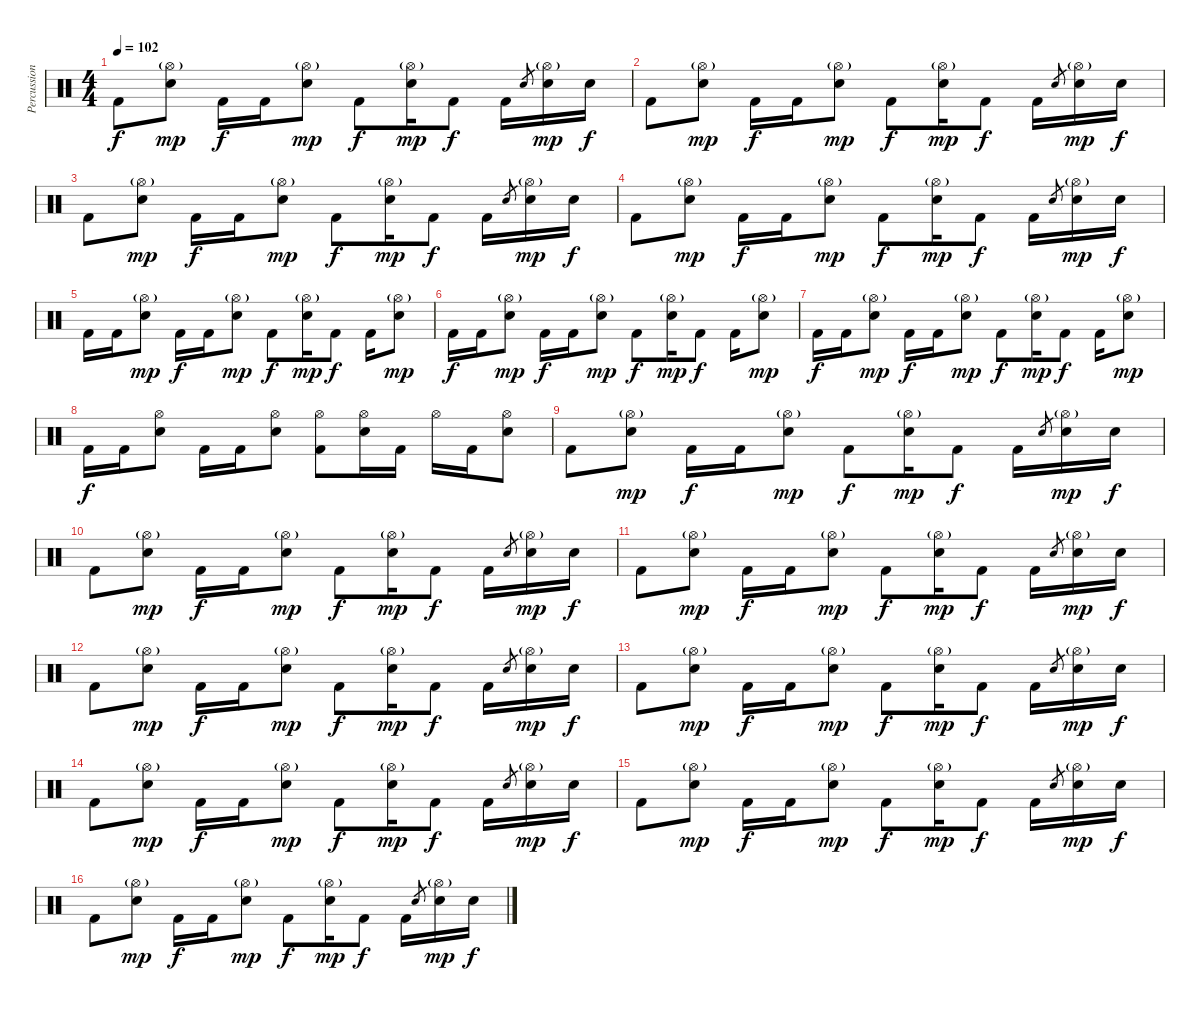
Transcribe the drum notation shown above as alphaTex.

\track ("Percussion" "Percussion") {instrument percussion}
\staff {score}
\articulation defaults
\ts (4 4)
\tempo 102
\clef neutral
\ks c "Kick (hit) 2".8{dy f}
("Hi-Hat (open)"{g} "Snare (hit) 2").8{dy mp} "Kick (hit) 2".16{dy f} "Kick (hit) 2".16 ("Hi-Hat (open)"{g} "Snare (hit) 2").8{dy mp} "Kick (hit) 2".8{dy f} ("Hi-Hat (open)"{g} "Snare (hit) 2").16{dy mp} "Kick (hit) 2".8{dy f} "Kick (hit) 2".16 "Snare (hit) 2".8{gr} ("Hi-Hat (open)"{g} "Snare (hit) 2").16{dy mp} "Snare (hit) 2".16{dy f} |
"Kick (hit) 2".8 ("Hi-Hat (open)"{g} "Snare (hit) 2").8{dy mp} "Kick (hit) 2".16{dy f} "Kick (hit) 2".16 ("Hi-Hat (open)"{g} "Snare (hit) 2").8{dy mp} "Kick (hit) 2".8{dy f} ("Hi-Hat (open)"{g} "Snare (hit) 2").16{dy mp} "Kick (hit) 2".8{dy f} "Kick (hit) 2".16 "Snare (hit) 2".8{gr} ("Hi-Hat (open)"{g} "Snare (hit) 2").16{dy mp} "Snare (hit) 2".16{dy f} |
"Kick (hit) 2".8 ("Hi-Hat (open)"{g} "Snare (hit) 2").8{dy mp} "Kick (hit) 2".16{dy f} "Kick (hit) 2".16 ("Hi-Hat (open)"{g} "Snare (hit) 2").8{dy mp} "Kick (hit) 2".8{dy f} ("Hi-Hat (open)"{g} "Snare (hit) 2").16{dy mp} "Kick (hit) 2".8{dy f} "Kick (hit) 2".16 "Snare (hit) 2".8{gr} ("Hi-Hat (open)"{g} "Snare (hit) 2").16{dy mp} "Snare (hit) 2".16{dy f} |
"Kick (hit) 2".8 ("Hi-Hat (open)"{g} "Snare (hit) 2").8{dy mp} "Kick (hit) 2".16{dy f} "Kick (hit) 2".16 ("Hi-Hat (open)"{g} "Snare (hit) 2").8{dy mp} "Kick (hit) 2".8{dy f} ("Hi-Hat (open)"{g} "Snare (hit) 2").16{dy mp} "Kick (hit) 2".8{dy f} "Kick (hit) 2".16 "Snare (hit) 2".8{gr} ("Hi-Hat (open)"{g} "Snare (hit) 2").16{dy mp} "Snare (hit) 2".16{dy f} |
"Kick (hit) 2".16 "Kick (hit) 2".16 ("Hi-Hat (open)"{g} "Snare (hit) 2").8{dy mp} "Kick (hit) 2".16{dy f} "Kick (hit) 2".16 ("Hi-Hat (open)"{g} "Snare (hit) 2").8{dy mp} "Kick (hit) 2".8{dy f} ("Hi-Hat (open)"{g} "Snare (hit) 2").16{dy mp} "Kick (hit) 2".8{dy f} "Kick (hit) 2".16 ("Hi-Hat (open)"{g} "Snare (hit) 2").8{dy mp} |
"Kick (hit) 2".16{dy f} "Kick (hit) 2".16 ("Hi-Hat (open)"{g} "Snare (hit) 2").8{dy mp} "Kick (hit) 2".16{dy f} "Kick (hit) 2".16 ("Hi-Hat (open)"{g} "Snare (hit) 2").8{dy mp} "Kick (hit) 2".8{dy f} ("Hi-Hat (open)"{g} "Snare (hit) 2").16{dy mp} "Kick (hit) 2".8{dy f} "Kick (hit) 2".16 ("Hi-Hat (open)"{g} "Snare (hit) 2").8{dy mp} |
"Kick (hit) 2".16{dy f} "Kick (hit) 2".16 ("Hi-Hat (open)"{g} "Snare (hit) 2").8{dy mp} "Kick (hit) 2".16{dy f} "Kick (hit) 2".16 ("Hi-Hat (open)"{g} "Snare (hit) 2").8{dy mp} "Kick (hit) 2".8{dy f} ("Hi-Hat (open)"{g} "Snare (hit) 2").16{dy mp} "Kick (hit) 2".8{dy f} "Kick (hit) 2".16 ("Hi-Hat (open)"{g} "Snare (hit) 2").8{dy mp} |
"Kick (hit) 2".16{dy f} "Kick (hit) 2".16 ("Hi-Hat (open)" "Snare (hit) 2").8 "Kick (hit) 2".16 "Kick (hit) 2".16 ("Hi-Hat (open)" "Snare (hit) 2").8 ("Hi-Hat (open)" "Kick (hit) 2").8 ("Hi-Hat (open)" "Snare (hit) 2").16 "Kick (hit) 2".16 "Hi-Hat (open)".16 "Kick (hit) 2".16 ("Hi-Hat (open)" "Snare (hit) 2").8 |
"Kick (hit) 2".8 ("Hi-Hat (open)"{g} "Snare (hit) 2").8{dy mp} "Kick (hit) 2".16{dy f} "Kick (hit) 2".16 ("Hi-Hat (open)"{g} "Snare (hit) 2").8{dy mp} "Kick (hit) 2".8{dy f} ("Hi-Hat (open)"{g} "Snare (hit) 2").16{dy mp} "Kick (hit) 2".8{dy f} "Kick (hit) 2".16 "Snare (hit) 2".8{gr} ("Hi-Hat (open)"{g} "Snare (hit) 2").16{dy mp} "Snare (hit) 2".16{dy f} |
"Kick (hit) 2".8 ("Hi-Hat (open)"{g} "Snare (hit) 2").8{dy mp} "Kick (hit) 2".16{dy f} "Kick (hit) 2".16 ("Hi-Hat (open)"{g} "Snare (hit) 2").8{dy mp} "Kick (hit) 2".8{dy f} ("Hi-Hat (open)"{g} "Snare (hit) 2").16{dy mp} "Kick (hit) 2".8{dy f} "Kick (hit) 2".16 "Snare (hit) 2".8{gr} ("Hi-Hat (open)"{g} "Snare (hit) 2").16{dy mp} "Snare (hit) 2".16{dy f} |
"Kick (hit) 2".8 ("Hi-Hat (open)"{g} "Snare (hit) 2").8{dy mp} "Kick (hit) 2".16{dy f} "Kick (hit) 2".16 ("Hi-Hat (open)"{g} "Snare (hit) 2").8{dy mp} "Kick (hit) 2".8{dy f} ("Hi-Hat (open)"{g} "Snare (hit) 2").16{dy mp} "Kick (hit) 2".8{dy f} "Kick (hit) 2".16 "Snare (hit) 2".8{gr} ("Hi-Hat (open)"{g} "Snare (hit) 2").16{dy mp} "Snare (hit) 2".16{dy f} |
"Kick (hit) 2".8 ("Hi-Hat (open)"{g} "Snare (hit) 2").8{dy mp} "Kick (hit) 2".16{dy f} "Kick (hit) 2".16 ("Hi-Hat (open)"{g} "Snare (hit) 2").8{dy mp} "Kick (hit) 2".8{dy f} ("Hi-Hat (open)"{g} "Snare (hit) 2").16{dy mp} "Kick (hit) 2".8{dy f} "Kick (hit) 2".16 "Snare (hit) 2".8{gr} ("Hi-Hat (open)"{g} "Snare (hit) 2").16{dy mp} "Snare (hit) 2".16{dy f} |
"Kick (hit) 2".8 ("Hi-Hat (open)"{g} "Snare (hit) 2").8{dy mp} "Kick (hit) 2".16{dy f} "Kick (hit) 2".16 ("Hi-Hat (open)"{g} "Snare (hit) 2").8{dy mp} "Kick (hit) 2".8{dy f} ("Hi-Hat (open)"{g} "Snare (hit) 2").16{dy mp} "Kick (hit) 2".8{dy f} "Kick (hit) 2".16 "Snare (hit) 2".8{gr} ("Hi-Hat (open)"{g} "Snare (hit) 2").16{dy mp} "Snare (hit) 2".16{dy f} |
"Kick (hit) 2".8 ("Hi-Hat (open)"{g} "Snare (hit) 2").8{dy mp} "Kick (hit) 2".16{dy f} "Kick (hit) 2".16 ("Hi-Hat (open)"{g} "Snare (hit) 2").8{dy mp} "Kick (hit) 2".8{dy f} ("Hi-Hat (open)"{g} "Snare (hit) 2").16{dy mp} "Kick (hit) 2".8{dy f} "Kick (hit) 2".16 "Snare (hit) 2".8{gr} ("Hi-Hat (open)"{g} "Snare (hit) 2").16{dy mp} "Snare (hit) 2".16{dy f} |
"Kick (hit) 2".8 ("Hi-Hat (open)"{g} "Snare (hit) 2").8{dy mp} "Kick (hit) 2".16{dy f} "Kick (hit) 2".16 ("Hi-Hat (open)"{g} "Snare (hit) 2").8{dy mp} "Kick (hit) 2".8{dy f} ("Hi-Hat (open)"{g} "Snare (hit) 2").16{dy mp} "Kick (hit) 2".8{dy f} "Kick (hit) 2".16 "Snare (hit) 2".8{gr} ("Hi-Hat (open)"{g} "Snare (hit) 2").16{dy mp} "Snare (hit) 2".16{dy f} |
"Kick (hit) 2".8 ("Hi-Hat (open)"{g} "Snare (hit) 2").8{dy mp} "Kick (hit) 2".16{dy f} "Kick (hit) 2".16 ("Hi-Hat (open)"{g} "Snare (hit) 2").8{dy mp} "Kick (hit) 2".8{dy f} ("Hi-Hat (open)"{g} "Snare (hit) 2").16{dy mp} "Kick (hit) 2".8{dy f} "Kick (hit) 2".16 "Snare (hit) 2".8{gr} ("Hi-Hat (open)"{g} "Snare (hit) 2").16{dy mp} "Snare (hit) 2".16{dy f}
